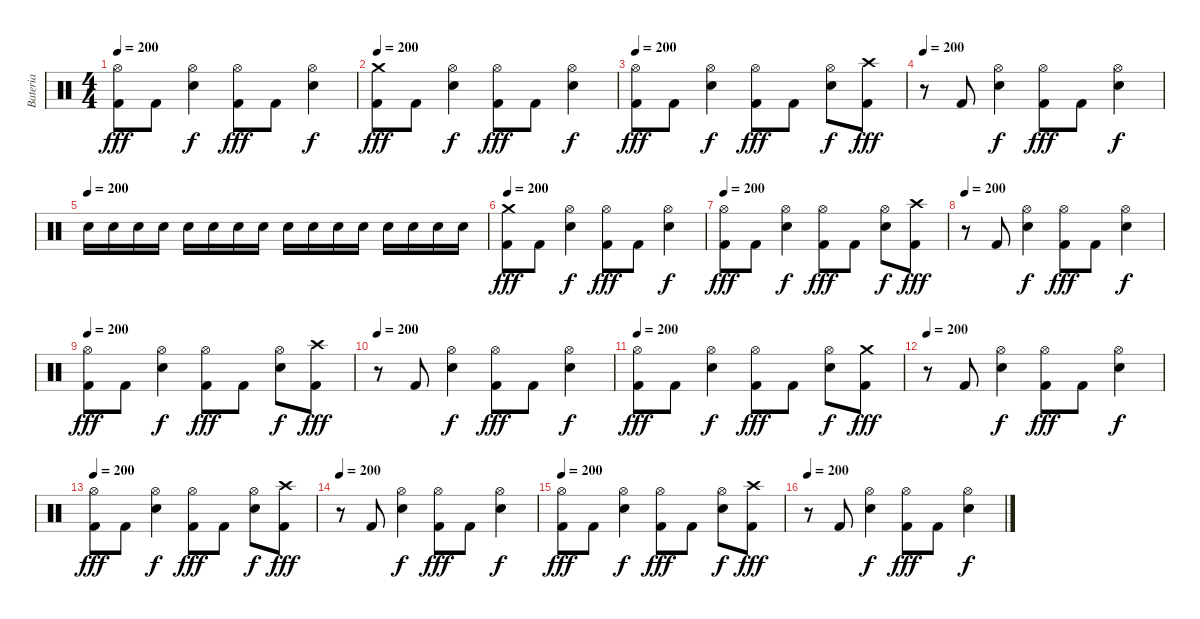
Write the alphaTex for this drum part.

\track ("Bateria" "Bateria") {instrument percussion}
\staff {score}
\articulation defaults
\ts (4 4)
\tempo 200
\clef neutral
\ks c
("Hi-Hat (open)" "Kick (hit) 2").8{dy fff} "Kick (hit) 2".8 ("Hi-Hat (open)" "Electric Snare (hit)").4{dy f} ("Hi-Hat (open)" "Kick (hit) 2").8{dy fff} "Kick (hit) 2".8 ("Hi-Hat (open)" "Electric Snare (hit)").4{dy f} |
\tempo 200
("Crash medium (hit)" "Kick (hit) 2").8{dy fff} "Kick (hit) 2".8 ("Hi-Hat (open)" "Electric Snare (hit)").4{dy f} ("Hi-Hat (open)" "Kick (hit) 2").8{dy fff} "Kick (hit) 2".8 ("Hi-Hat (open)" "Electric Snare (hit)").4{dy f} |
\tempo 200
("Hi-Hat (open)" "Kick (hit) 2").8{dy fff} "Kick (hit) 2".8 ("Hi-Hat (open)" "Electric Snare (hit)").4{dy f} ("Hi-Hat (open)" "Kick (hit) 2").8{dy fff} "Kick (hit) 2".8 ("Hi-Hat (open)" "Electric Snare (hit)").8{dy f} ("Crash high (hit)" "Kick (hit) 2").8{dy fff} |
\tempo 200
r.8 "Kick (hit) 2".8 ("Hi-Hat (open)" "Electric Snare (hit)").4{dy f} ("Hi-Hat (open)" "Kick (hit) 2").8{dy fff} "Kick (hit) 2".8 ("Hi-Hat (open)" "Electric Snare (hit)").4{dy f} |
\tempo (200)
"Electric Snare (hit)".16 "Electric Snare (hit)".16 "Electric Snare (hit)".16 "Electric Snare (hit)".16 "Electric Snare (hit)".16 "Electric Snare (hit)".16 "Electric Snare (hit)".16 "Electric Snare (hit)".16 "Electric Snare (hit)".16 "Electric Snare (hit)".16 "Electric Snare (hit)".16 "Electric Snare (hit)".16 "Electric Snare (hit)".16 "Electric Snare (hit)".16 "Electric Snare (hit)".16 "Electric Snare (hit)".16 |
\tempo 200
("Crash medium (hit)" "Kick (hit) 2").8{dy fff} "Kick (hit) 2".8 ("Hi-Hat (open)" "Electric Snare (hit)").4{dy f} ("Hi-Hat (open)" "Kick (hit) 2").8{dy fff} "Kick (hit) 2".8 ("Hi-Hat (open)" "Electric Snare (hit)").4{dy f} |
\tempo 200
("Hi-Hat (open)" "Kick (hit) 2").8{dy fff} "Kick (hit) 2".8 ("Hi-Hat (open)" "Electric Snare (hit)").4{dy f} ("Hi-Hat (open)" "Kick (hit) 2").8{dy fff} "Kick (hit) 2".8 ("Hi-Hat (open)" "Electric Snare (hit)").8{dy f} ("Crash high (hit)" "Kick (hit) 2").8{dy fff} |
\tempo 200
r.8 "Kick (hit) 2".8 ("Hi-Hat (open)" "Electric Snare (hit)").4{dy f} ("Hi-Hat (open)" "Kick (hit) 2").8{dy fff} "Kick (hit) 2".8 ("Hi-Hat (open)" "Electric Snare (hit)").4{dy f} |
\tempo 200
("Hi-Hat (open)" "Kick (hit) 2").8{dy fff} "Kick (hit) 2".8 ("Hi-Hat (open)" "Electric Snare (hit)").4{dy f} ("Hi-Hat (open)" "Kick (hit) 2").8{dy fff} "Kick (hit) 2".8 ("Hi-Hat (open)" "Electric Snare (hit)").8{dy f} ("Crash high (hit)" "Kick (hit) 2").8{dy fff} |
\tempo 200
r.8 "Kick (hit) 2".8 ("Hi-Hat (open)" "Electric Snare (hit)").4{dy f} ("Hi-Hat (open)" "Kick (hit) 2").8{dy fff} "Kick (hit) 2".8 ("Hi-Hat (open)" "Electric Snare (hit)").4{dy f} |
\tempo 200
("Hi-Hat (open)" "Kick (hit) 2").8{dy fff} "Kick (hit) 2".8 ("Hi-Hat (open)" "Electric Snare (hit)").4{dy f} ("Hi-Hat (open)" "Kick (hit) 2").8{dy fff} "Kick (hit) 2".8 ("Hi-Hat (open)" "Electric Snare (hit)").8{dy f} ("Crash medium (hit)" "Kick (hit) 2").8{dy fff} |
\tempo 200
r.8 "Kick (hit) 2".8 ("Hi-Hat (open)" "Electric Snare (hit)").4{dy f} ("Hi-Hat (open)" "Kick (hit) 2").8{dy fff} "Kick (hit) 2".8 ("Hi-Hat (open)" "Electric Snare (hit)").4{dy f} |
\tempo 200
("Hi-Hat (open)" "Kick (hit) 2").8{dy fff} "Kick (hit) 2".8 ("Hi-Hat (open)" "Electric Snare (hit)").4{dy f} ("Hi-Hat (open)" "Kick (hit) 2").8{dy fff} "Kick (hit) 2".8 ("Hi-Hat (open)" "Electric Snare (hit)").8{dy f} ("Crash high (hit)" "Kick (hit) 2").8{dy fff} |
\tempo 200
r.8 "Kick (hit) 2".8 ("Hi-Hat (open)" "Electric Snare (hit)").4{dy f} ("Hi-Hat (open)" "Kick (hit) 2").8{dy fff} "Kick (hit) 2".8 ("Hi-Hat (open)" "Electric Snare (hit)").4{dy f} |
\tempo 200
("Hi-Hat (open)" "Kick (hit) 2").8{dy fff} "Kick (hit) 2".8 ("Hi-Hat (open)" "Electric Snare (hit)").4{dy f} ("Hi-Hat (open)" "Kick (hit) 2").8{dy fff} "Kick (hit) 2".8 ("Hi-Hat (open)" "Electric Snare (hit)").8{dy f} ("Crash high (hit)" "Kick (hit) 2").8{dy fff} |
\tempo 200
r.8 "Kick (hit) 2".8 ("Hi-Hat (open)" "Electric Snare (hit)").4{dy f} ("Hi-Hat (open)" "Kick (hit) 2").8{dy fff} "Kick (hit) 2".8 ("Hi-Hat (open)" "Electric Snare (hit)").4{dy f}
